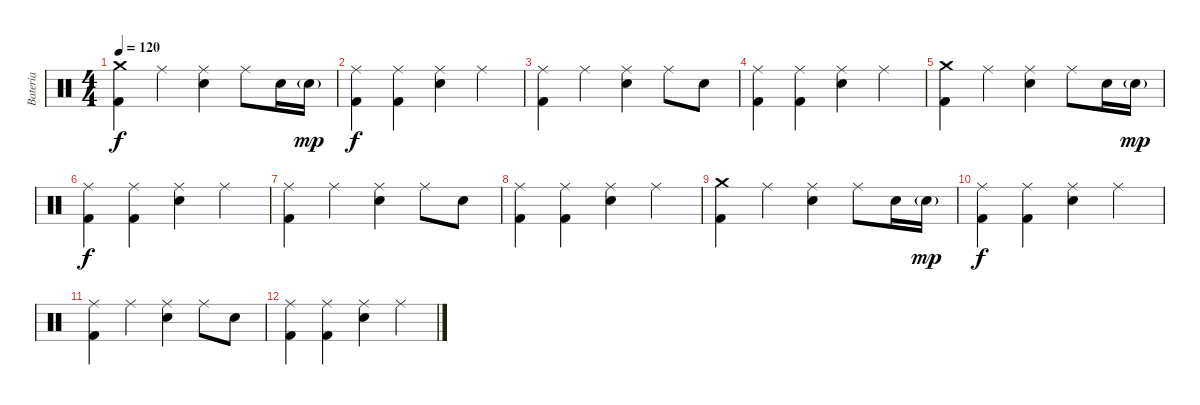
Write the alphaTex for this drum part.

\track ("Bateria" "Bateria") {instrument percussion}
\staff
\articulation defaults
\ts (4 4)
\tempo 120
\clef neutral
\ks c
("Crash medium (hit)" "Kick (hit) 2").4{dy f} "Ride (middle)".4 ("Ride (middle)" "Electric Snare (hit)").4 "Ride (middle)".8 "Electric Snare (hit)".16 "Electric Snare (hit)"{g}.16{dy mp} |
("Ride (middle)" "Kick (hit) 2").4{dy f} ("Ride (middle)" "Kick (hit) 2").4 ("Ride (middle)" "Electric Snare (hit)").4 "Ride (middle)".4 |
("Ride (middle)" "Kick (hit) 2").4 "Ride (middle)".4 ("Ride (middle)" "Electric Snare (hit)").4 "Ride (middle)".8 "Electric Snare (hit)".8 |
("Ride (middle)" "Kick (hit) 2").4 ("Ride (middle)" "Kick (hit) 2").4 ("Ride (middle)" "Electric Snare (hit)").4 "Ride (middle)".4 |
("Crash medium (hit)" "Kick (hit) 2").4 "Ride (middle)".4 ("Ride (middle)" "Electric Snare (hit)").4 "Ride (middle)".8 "Electric Snare (hit)".16 "Electric Snare (hit)"{g}.16{dy mp} |
("Ride (middle)" "Kick (hit) 2").4{dy f} ("Ride (middle)" "Kick (hit) 2").4 ("Ride (middle)" "Electric Snare (hit)").4 "Ride (middle)".4 |
("Ride (middle)" "Kick (hit) 2").4 "Ride (middle)".4 ("Ride (middle)" "Electric Snare (hit)").4 "Ride (middle)".8 "Electric Snare (hit)".8 |
("Ride (middle)" "Kick (hit) 2").4 ("Ride (middle)" "Kick (hit) 2").4 ("Ride (middle)" "Electric Snare (hit)").4 "Ride (middle)".4 |
("Crash medium (hit)" "Kick (hit) 2").4 "Ride (middle)".4 ("Ride (middle)" "Electric Snare (hit)").4 "Ride (middle)".8 "Electric Snare (hit)".16 "Electric Snare (hit)"{g}.16{dy mp} |
("Ride (middle)" "Kick (hit) 2").4{dy f} ("Ride (middle)" "Kick (hit) 2").4 ("Ride (middle)" "Electric Snare (hit)").4 "Ride (middle)".4 |
("Ride (middle)" "Kick (hit) 2").4 "Ride (middle)".4 ("Ride (middle)" "Electric Snare (hit)").4 "Ride (middle)".8 "Electric Snare (hit)".8 |
("Ride (middle)" "Kick (hit) 2").4 ("Ride (middle)" "Kick (hit) 2").4 ("Ride (middle)" "Electric Snare (hit)").4 "Ride (middle)".4
